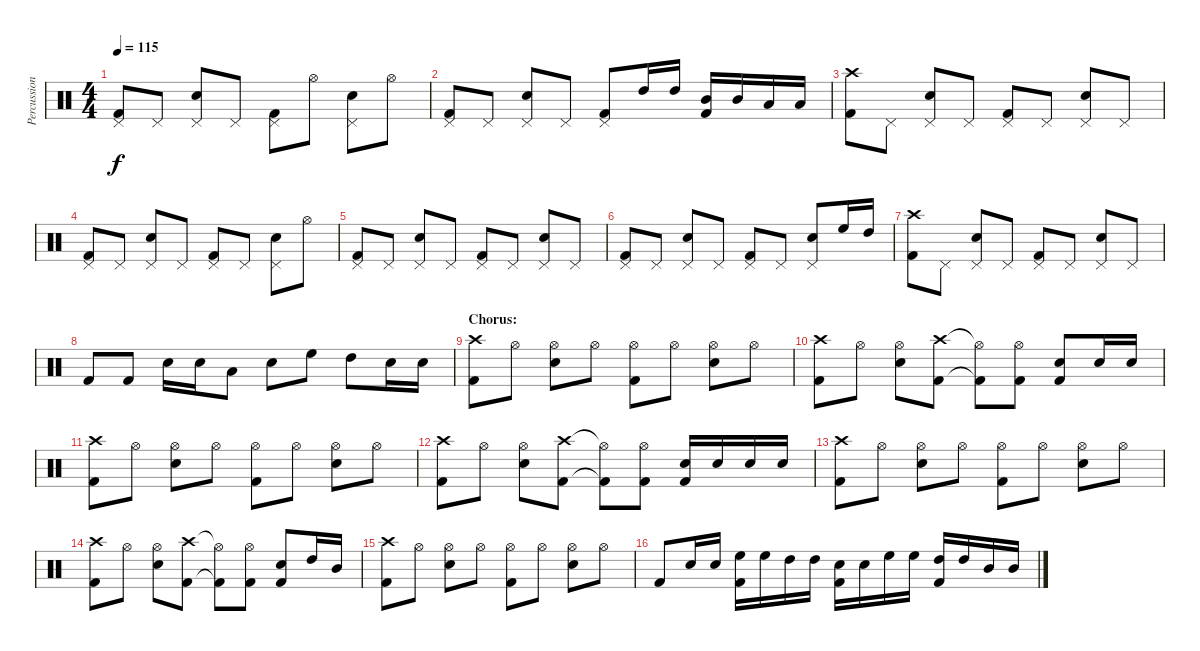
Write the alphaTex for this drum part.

\track ("Percussion" "Percussion") {instrument percussion}
\staff {score}
\articulation defaults
\ts (4 4)
\tempo 115
\clef neutral
\ks c
("Pedal Hi-Hat (hit)" "Kick (hit) 2").8{dy f} "Pedal Hi-Hat (hit)".8 ("Pedal Hi-Hat (hit)" "Snare (hit) 2").8 "Pedal Hi-Hat (hit)".8 ("Pedal Hi-Hat (hit)" "Kick (hit) 2").8 "Hi-Hat (open)".8 ("Pedal Hi-Hat (hit)" "Snare (hit) 2").8 "Hi-Hat (open)".8 |
("Pedal Hi-Hat (hit)" "Kick (hit) 2").8 "Pedal Hi-Hat (hit)".8 ("Pedal Hi-Hat (hit)" "Snare (hit) 2").8 "Pedal Hi-Hat (hit)".8 ("Pedal Hi-Hat (hit)" "Kick (hit) 2").8 "High Tom (hit)".16 "High Tom (hit)".16 ("Mid Tom (hit)" "Kick (hit) 2").16 "Mid Tom (hit)".16 "Low Tom (hit)".16 "Low Tom (hit)".16 |
("Crash high (hit)" "Kick (hit) 2").8 "Pedal Hi-Hat (hit)".8 ("Pedal Hi-Hat (hit)" "Snare (hit) 2").8 "Pedal Hi-Hat (hit)".8 ("Pedal Hi-Hat (hit)" "Kick (hit) 2").8 "Pedal Hi-Hat (hit)".8 ("Pedal Hi-Hat (hit)" "Snare (hit) 2").8 "Pedal Hi-Hat (hit)".8 |
("Pedal Hi-Hat (hit)" "Kick (hit) 2").8 "Pedal Hi-Hat (hit)".8 ("Pedal Hi-Hat (hit)" "Snare (hit) 2").8 "Pedal Hi-Hat (hit)".8 ("Pedal Hi-Hat (hit)" "Kick (hit) 2").8 "Pedal Hi-Hat (hit)".8 ("Pedal Hi-Hat (hit)" "Snare (hit) 2").8 "Hi-Hat (open)".8 |
("Pedal Hi-Hat (hit)" "Kick (hit) 2").8 "Pedal Hi-Hat (hit)".8 ("Pedal Hi-Hat (hit)" "Snare (hit) 2").8 "Pedal Hi-Hat (hit)".8 ("Pedal Hi-Hat (hit)" "Kick (hit) 2").8 "Pedal Hi-Hat (hit)".8 ("Pedal Hi-Hat (hit)" "Snare (hit) 2").8 "Pedal Hi-Hat (hit)".8 |
("Pedal Hi-Hat (hit)" "Kick (hit) 2").8 "Pedal Hi-Hat (hit)".8 ("Pedal Hi-Hat (hit)" "Snare (hit) 2").8 "Pedal Hi-Hat (hit)".8 ("Pedal Hi-Hat (hit)" "Kick (hit) 2").8 "Pedal Hi-Hat (hit)".8 ("Pedal Hi-Hat (hit)" "Snare (hit) 2").8 "High Floor Tom (hit)".16 "High Tom (hit)".16 |
("Crash high (hit)" "Kick (hit) 2").8 "Pedal Hi-Hat (hit)".8 ("Pedal Hi-Hat (hit)" "Snare (hit) 2").8 "Pedal Hi-Hat (hit)".8 ("Pedal Hi-Hat (hit)" "Kick (hit) 2").8 "Pedal Hi-Hat (hit)".8 ("Pedal Hi-Hat (hit)" "Snare (hit) 2").8 "Pedal Hi-Hat (hit)".8 |
"Kick (hit) 2".8 "Kick (hit) 2".8 "Snare (hit) 2".16 "Snare (hit) 2".16 "Low Tom (hit)".8 "Snare (hit) 2".8 "High Floor Tom (hit)".8 "High Tom (hit)".8 "Snare (hit) 2".16 "Snare (hit) 2".16 |
\section ("" "Chorus:")
("Crash high (hit)" "Kick (hit) 2").8 "Hi-Hat (open)".8 ("Hi-Hat (open)" "Snare (hit) 2").8 "Hi-Hat (open)".8 ("Hi-Hat (open)" "Kick (hit) 2").8 "Hi-Hat (open)".8 ("Hi-Hat (open)" "Snare (hit) 2").8 "Hi-Hat (open)".8 |
("Crash high (hit)" "Kick (hit) 2").8 "Hi-Hat (open)".8 ("Hi-Hat (open)" "Snare (hit) 2").8 ("Crash high (hit)" "Kick (hit) 2").8 ("Hi-Hat (open)"{t} "Kick (hit) 2"{t}).8 ("Hi-Hat (open)" "Kick (hit) 2").8 ("Snare (hit) 2" "Kick (hit) 2").8 "Snare (hit) 2".16 "Snare (hit) 2".16 |
("Crash high (hit)" "Kick (hit) 2").8 "Hi-Hat (open)".8 ("Hi-Hat (open)" "Snare (hit) 2").8 "Hi-Hat (open)".8 ("Hi-Hat (open)" "Kick (hit) 2").8 "Hi-Hat (open)".8 ("Hi-Hat (open)" "Snare (hit) 2").8 "Hi-Hat (open)".8 |
("Crash high (hit)" "Kick (hit) 2").8 "Hi-Hat (open)".8 ("Hi-Hat (open)" "Snare (hit) 2").8 ("Crash high (hit)" "Kick (hit) 2").8 ("Hi-Hat (open)"{t} "Kick (hit) 2"{t}).8 ("Hi-Hat (open)" "Kick (hit) 2").8 ("Snare (hit) 2" "Kick (hit) 2").16 "Snare (hit) 2".16 "Snare (hit) 2".16 "Snare (hit) 2".16 |
("Crash high (hit)" "Kick (hit) 2").8 "Hi-Hat (open)".8 ("Hi-Hat (open)" "Snare (hit) 2").8 "Hi-Hat (open)".8 ("Hi-Hat (open)" "Kick (hit) 2").8 "Hi-Hat (open)".8 ("Hi-Hat (open)" "Snare (hit) 2").8 "Hi-Hat (open)".8 |
("Crash high (hit)" "Kick (hit) 2").8 "Hi-Hat (open)".8 ("Hi-Hat (open)" "Snare (hit) 2").8 ("Crash high (hit)" "Kick (hit) 2").8 ("Hi-Hat (open)"{t} "Kick (hit) 2"{t}).8 ("Hi-Hat (open)" "Kick (hit) 2").8 ("Snare (hit) 2" "Kick (hit) 2").8 "High Tom (hit)".16 "Mid Tom (hit)".16 |
("Crash high (hit)" "Kick (hit) 2").8 "Hi-Hat (open)".8 ("Hi-Hat (open)" "Snare (hit) 2").8 "Hi-Hat (open)".8 ("Hi-Hat (open)" "Kick (hit) 2").8 "Hi-Hat (open)".8 ("Hi-Hat (open)" "Snare (hit) 2").8 "Hi-Hat (open)".8 |
"Kick (hit) 2".8 "Snare (hit) 2".16 "Snare (hit) 2".16 ("High Floor Tom (hit)" "Kick (hit) 2").16 "High Floor Tom (hit)".16 "High Tom (hit)".16 "High Tom (hit)".16 ("Snare (hit) 2" "Kick (hit) 2").16 "Snare (hit) 2".16 "High Floor Tom (hit)".16 "High Floor Tom (hit)".16 ("High Tom (hit)" "Kick (hit) 2").16 "High Tom (hit)".16 "Mid Tom (hit)".16 "Mid Tom (hit)".16
